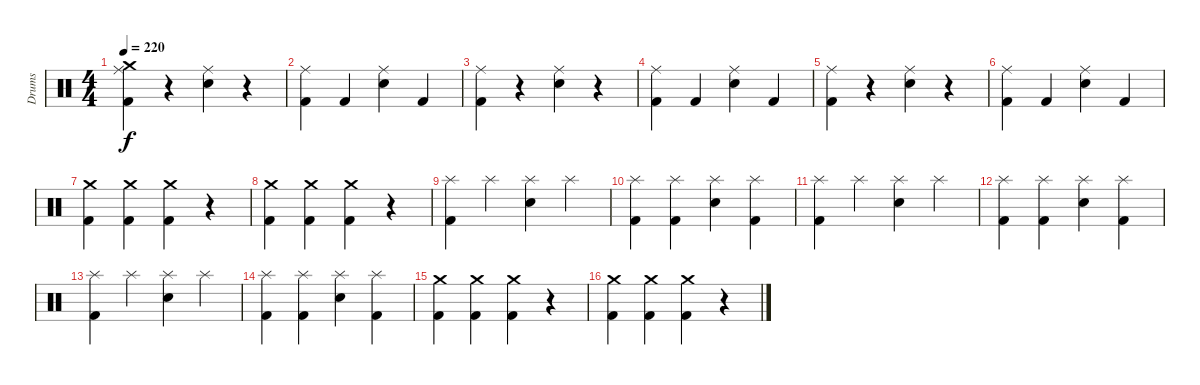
\track ("Drums" "Drums") {instrument percussion}
\staff {score}
\articulation defaults
\ts (4 4)
\tempo 220
\clef neutral
\ks c
("Crash medium (hit)" "Ride (middle)" "Kick (hit) 2").4{dy f} r.4 ("Ride (middle)" "Electric Snare (hit)").4 r.4 |
("Ride (middle)" "Kick (hit) 2").4 "Kick (hit) 2".4 ("Ride (middle)" "Electric Snare (hit)").4 "Kick (hit) 2".4 |
("Ride (middle)" "Kick (hit) 2").4 r.4 ("Ride (middle)" "Electric Snare (hit)").4 r.4 |
("Ride (middle)" "Kick (hit) 2").4 "Kick (hit) 2".4 ("Ride (middle)" "Electric Snare (hit)").4 "Kick (hit) 2".4 |
("Ride (middle)" "Kick (hit) 2").4 r.4 ("Ride (middle)" "Electric Snare (hit)").4 r.4 |
("Ride (middle)" "Kick (hit) 2").4 "Kick (hit) 2".4 ("Ride (middle)" "Electric Snare (hit)").4 "Kick (hit) 2".4 |
("Crash medium (hit)" "Kick (hit) 2").4 ("Crash medium (hit)" "Kick (hit) 2").4 ("Crash medium (hit)" "Kick (hit) 2").4 r.4 |
("Crash medium (hit)" "Kick (hit) 2").4 ("Crash medium (hit)" "Kick (hit) 2").4 ("Crash medium (hit)" "Kick (hit) 2").4 r.4 |
("Splash (hit)" "Kick (hit) 2").4 "Splash (hit)".4 ("Splash (hit)" "Electric Snare (hit)").4 "Splash (hit)".4 |
("Splash (hit)" "Kick (hit) 2").4 ("Splash (hit)" "Kick (hit) 2").4 ("Splash (hit)" "Electric Snare (hit)").4 ("Splash (hit)" "Kick (hit) 2").4 |
("Splash (hit)" "Kick (hit) 2").4 "Splash (hit)".4 ("Splash (hit)" "Electric Snare (hit)").4 "Splash (hit)".4 |
("Splash (hit)" "Kick (hit) 2").4 ("Splash (hit)" "Kick (hit) 2").4 ("Splash (hit)" "Electric Snare (hit)").4 ("Splash (hit)" "Kick (hit) 2").4 |
("Splash (hit)" "Kick (hit) 2").4 "Splash (hit)".4 ("Splash (hit)" "Electric Snare (hit)").4 "Splash (hit)".4 |
("Splash (hit)" "Kick (hit) 2").4 ("Splash (hit)" "Kick (hit) 2").4 ("Splash (hit)" "Electric Snare (hit)").4 ("Splash (hit)" "Kick (hit) 2").4 |
("Crash medium (hit)" "Kick (hit) 2").4 ("Crash medium (hit)" "Kick (hit) 2").4 ("Crash medium (hit)" "Kick (hit) 2").4 r.4 |
("Crash medium (hit)" "Kick (hit) 2").4 ("Crash medium (hit)" "Kick (hit) 2").4 ("Crash medium (hit)" "Kick (hit) 2").4 r.4
